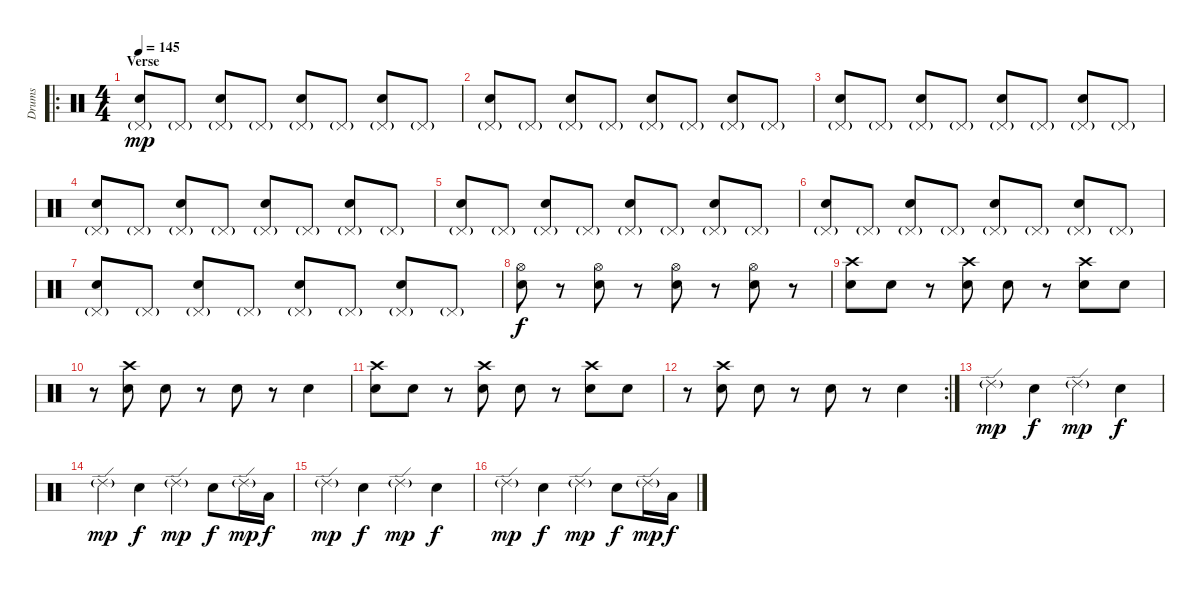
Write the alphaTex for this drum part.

\track ("Drums" "Drums") {instrument percussion}
\staff {score}
\articulation defaults
\ro
\ts (4 4)
\section ("" "Verse")
\tempo 145
\clef neutral
\ks c
("Pedal Hi-Hat (hit)"{g} "Electric Snare (hit)").8{dy mp} "Pedal Hi-Hat (hit)"{g}.8 ("Pedal Hi-Hat (hit)"{g} "Electric Snare (hit)").8 "Pedal Hi-Hat (hit)"{g}.8 ("Pedal Hi-Hat (hit)"{g} "Electric Snare (hit)").8 "Pedal Hi-Hat (hit)"{g}.8 ("Pedal Hi-Hat (hit)"{g} "Electric Snare (hit)").8 "Pedal Hi-Hat (hit)"{g}.8 |
("Pedal Hi-Hat (hit)"{g} "Electric Snare (hit)").8 "Pedal Hi-Hat (hit)"{g}.8 ("Pedal Hi-Hat (hit)"{g} "Electric Snare (hit)").8 "Pedal Hi-Hat (hit)"{g}.8 ("Pedal Hi-Hat (hit)"{g} "Electric Snare (hit)").8 "Pedal Hi-Hat (hit)"{g}.8 ("Pedal Hi-Hat (hit)"{g} "Electric Snare (hit)").8 "Pedal Hi-Hat (hit)"{g}.8 |
("Pedal Hi-Hat (hit)"{g} "Electric Snare (hit)").8 "Pedal Hi-Hat (hit)"{g}.8 ("Pedal Hi-Hat (hit)"{g} "Electric Snare (hit)").8 "Pedal Hi-Hat (hit)"{g}.8 ("Pedal Hi-Hat (hit)"{g} "Electric Snare (hit)").8 "Pedal Hi-Hat (hit)"{g}.8 ("Pedal Hi-Hat (hit)"{g} "Electric Snare (hit)").8 "Pedal Hi-Hat (hit)"{g}.8 |
("Pedal Hi-Hat (hit)"{g} "Electric Snare (hit)").8 "Pedal Hi-Hat (hit)"{g}.8 ("Pedal Hi-Hat (hit)"{g} "Electric Snare (hit)").8 "Pedal Hi-Hat (hit)"{g}.8 ("Pedal Hi-Hat (hit)"{g} "Electric Snare (hit)").8 "Pedal Hi-Hat (hit)"{g}.8 ("Pedal Hi-Hat (hit)"{g} "Electric Snare (hit)").8 "Pedal Hi-Hat (hit)"{g}.8 |
("Pedal Hi-Hat (hit)"{g} "Electric Snare (hit)").8 "Pedal Hi-Hat (hit)"{g}.8 ("Pedal Hi-Hat (hit)"{g} "Electric Snare (hit)").8 "Pedal Hi-Hat (hit)"{g}.8 ("Pedal Hi-Hat (hit)"{g} "Electric Snare (hit)").8 "Pedal Hi-Hat (hit)"{g}.8 ("Pedal Hi-Hat (hit)"{g} "Electric Snare (hit)").8 "Pedal Hi-Hat (hit)"{g}.8 |
("Pedal Hi-Hat (hit)"{g} "Electric Snare (hit)").8 "Pedal Hi-Hat (hit)"{g}.8 ("Pedal Hi-Hat (hit)"{g} "Electric Snare (hit)").8 "Pedal Hi-Hat (hit)"{g}.8 ("Pedal Hi-Hat (hit)"{g} "Electric Snare (hit)").8 "Pedal Hi-Hat (hit)"{g}.8 ("Pedal Hi-Hat (hit)"{g} "Electric Snare (hit)").8 "Pedal Hi-Hat (hit)"{g}.8 |
("Pedal Hi-Hat (hit)"{g} "Electric Snare (hit)").8 "Pedal Hi-Hat (hit)"{g}.8 ("Pedal Hi-Hat (hit)"{g} "Electric Snare (hit)").8 "Pedal Hi-Hat (hit)"{g}.8 ("Pedal Hi-Hat (hit)"{g} "Electric Snare (hit)").8 "Pedal Hi-Hat (hit)"{g}.8 ("Pedal Hi-Hat (hit)"{g} "Electric Snare (hit)").8 "Pedal Hi-Hat (hit)"{g}.8 |
("Hi-Hat (open)" "Electric Snare (hit)").8{dy f} r.8 ("Hi-Hat (open)" "Electric Snare (hit)").8 r.8 ("Hi-Hat (open)" "Electric Snare (hit)").8 r.8 ("Hi-Hat (open)" "Electric Snare (hit)").8 r.8 |
("Crash high (hit)" "Electric Snare (hit)").8 "Electric Snare (hit)".8 r.8 ("Crash high (hit)" "Electric Snare (hit)").8 "Electric Snare (hit)".8 r.8 ("Crash high (hit)" "Electric Snare (hit)").8 "Electric Snare (hit)".8 |
r.8 ("Crash high (hit)" "Electric Snare (hit)").8 "Electric Snare (hit)".8 r.8 "Electric Snare (hit)".8 r.8 "Electric Snare (hit)".4 |
("Crash high (hit)" "Electric Snare (hit)").8 "Electric Snare (hit)".8 r.8 ("Crash high (hit)" "Electric Snare (hit)").8 "Electric Snare (hit)".8 r.8 ("Crash high (hit)" "Electric Snare (hit)").8 "Electric Snare (hit)".8 |
\rc 2
r.8 ("Crash high (hit)" "Electric Snare (hit)").8 "Electric Snare (hit)".8 r.8 "Electric Snare (hit)".8 r.8 "Electric Snare (hit)".4 |
"Ride (edge) 2"{g}.4{dy mp} "Electric Snare (hit)".4{dy f} "Ride (edge) 2"{g}.4{dy mp} "Electric Snare (hit)".4{dy f} |
"Ride (edge) 2"{g}.4{dy mp} "Electric Snare (hit)".4{dy f} "Ride (edge) 2"{g}.4{dy mp} "Electric Snare (hit)".8{dy f} "Ride (edge) 2"{g}.16{dy mp} "Low Tom (hit)".16{dy f} |
"Ride (edge) 2"{g}.4{dy mp} "Electric Snare (hit)".4{dy f} "Ride (edge) 2"{g}.4{dy mp} "Electric Snare (hit)".4{dy f} |
"Ride (edge) 2"{g}.4{dy mp} "Electric Snare (hit)".4{dy f} "Ride (edge) 2"{g}.4{dy mp} "Electric Snare (hit)".8{dy f} "Ride (edge) 2"{g}.16{dy mp} "Low Tom (hit)".16{dy f}
